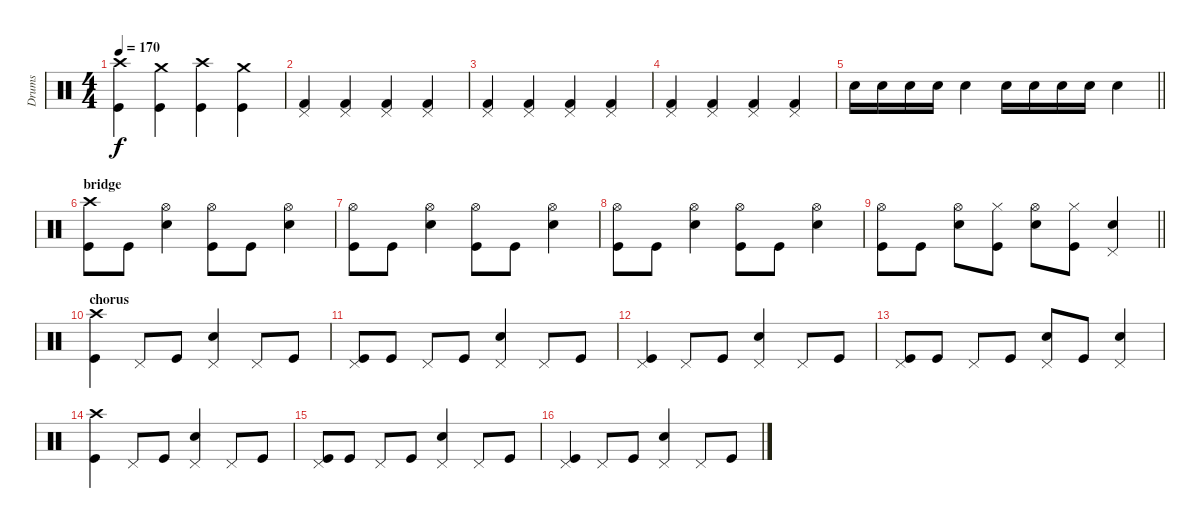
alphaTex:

\track ("Drums" "Drums") {instrument percussion}
\staff {score}
\articulation defaults
\ts (4 4)
\tempo 170
\clef neutral
\ks c
("Crash high (hit)" "Kick (hit)").4{dy f} ("Crash medium (hit)" "Kick (hit)").4 ("Crash high (hit)" "Kick (hit)").4 ("Crash medium (hit)" "Kick (hit)").4 |
("Kick (hit) 2" "Pedal Hi-Hat (hit)").4 ("Kick (hit) 2" "Pedal Hi-Hat (hit)").4 ("Kick (hit) 2" "Pedal Hi-Hat (hit)").4 ("Kick (hit) 2" "Pedal Hi-Hat (hit)").4 |
("Kick (hit) 2" "Pedal Hi-Hat (hit)").4 ("Kick (hit) 2" "Pedal Hi-Hat (hit)").4 ("Kick (hit) 2" "Pedal Hi-Hat (hit)").4 ("Kick (hit) 2" "Pedal Hi-Hat (hit)").4 |
("Kick (hit) 2" "Pedal Hi-Hat (hit)").4 ("Kick (hit) 2" "Pedal Hi-Hat (hit)").4 ("Kick (hit) 2" "Pedal Hi-Hat (hit)").4 ("Kick (hit) 2" "Pedal Hi-Hat (hit)").4 |
\barLineRight lightlight "Snare (hit) 2".16 "Snare (hit) 2".16 "Snare (hit) 2".16 "Snare (hit) 2".16 "Snare (hit) 2".4 "Snare (hit) 2".16 "Snare (hit) 2".16 "Snare (hit) 2".16 "Snare (hit) 2".16 "Snare (hit) 2".4
|
\section ("" "bridge")
("Crash high (hit)" "Kick (hit)").8 "Kick (hit)".8 ("Snare (hit) 2" "Hi-Hat (open)").4 ("Hi-Hat (open)" "Kick (hit)").8 "Kick (hit)".8 ("Snare (hit) 2" "Hi-Hat (open)").4 |
("Hi-Hat (open)" "Kick (hit)").8 "Kick (hit)".8 ("Snare (hit) 2" "Hi-Hat (open)").4 ("Hi-Hat (open)" "Kick (hit)").8 "Kick (hit)".8 ("Snare (hit) 2" "Hi-Hat (open)").4 |
("Hi-Hat (open)" "Kick (hit)").8 "Kick (hit)".8 ("Snare (hit) 2" "Hi-Hat (open)").4 ("Hi-Hat (open)" "Kick (hit)").8 "Kick (hit)".8 ("Snare (hit) 2" "Hi-Hat (open)").4 |
\barLineRight lightlight
("Hi-Hat (open)" "Kick (hit)").8 "Kick (hit)".8 ("Snare (hit) 2" "Hi-Hat (open)").8 ("Hi-Hat (closed)" "Kick (hit)").8 ("Snare (hit) 2" "Hi-Hat (open)").8 ("Hi-Hat (closed)" "Kick (hit)").8 ("Snare (hit) 2" "Pedal Hi-Hat (hit)").4 |
\section ("" "chorus")
("Crash high (hit)" "Kick (hit)").4 "Pedal Hi-Hat (hit)".8 "Kick (hit)".8 ("Snare (hit) 2" "Pedal Hi-Hat (hit)").4 "Pedal Hi-Hat (hit)".8 "Kick (hit)".8 |
("Pedal Hi-Hat (hit)" "Kick (hit)").8 "Kick (hit)".8 "Pedal Hi-Hat (hit)".8 "Kick (hit)".8 ("Snare (hit) 2" "Pedal Hi-Hat (hit)").4 "Pedal Hi-Hat (hit)".8 "Kick (hit)".8 |
("Pedal Hi-Hat (hit)" "Kick (hit)").4 "Pedal Hi-Hat (hit)".8 "Kick (hit)".8 ("Snare (hit) 2" "Pedal Hi-Hat (hit)").4 "Pedal Hi-Hat (hit)".8 "Kick (hit)".8 |
("Pedal Hi-Hat (hit)" "Kick (hit)").8 "Kick (hit)".8 "Pedal Hi-Hat (hit)".8 "Kick (hit)".8 ("Snare (hit) 2" "Pedal Hi-Hat (hit)").8 "Kick (hit)".8 ("Snare (hit) 2" "Pedal Hi-Hat (hit)").4 |
("Crash high (hit)" "Kick (hit)").4 "Pedal Hi-Hat (hit)".8 "Kick (hit)".8 ("Snare (hit) 2" "Pedal Hi-Hat (hit)").4 "Pedal Hi-Hat (hit)".8 "Kick (hit)".8 |
("Pedal Hi-Hat (hit)" "Kick (hit)").8 "Kick (hit)".8 "Pedal Hi-Hat (hit)".8 "Kick (hit)".8 ("Snare (hit) 2" "Pedal Hi-Hat (hit)").4 "Pedal Hi-Hat (hit)".8 "Kick (hit)".8 |
("Pedal Hi-Hat (hit)" "Kick (hit)").4 "Pedal Hi-Hat (hit)".8 "Kick (hit)".8 ("Snare (hit) 2" "Pedal Hi-Hat (hit)").4 "Pedal Hi-Hat (hit)".8 "Kick (hit)".8
